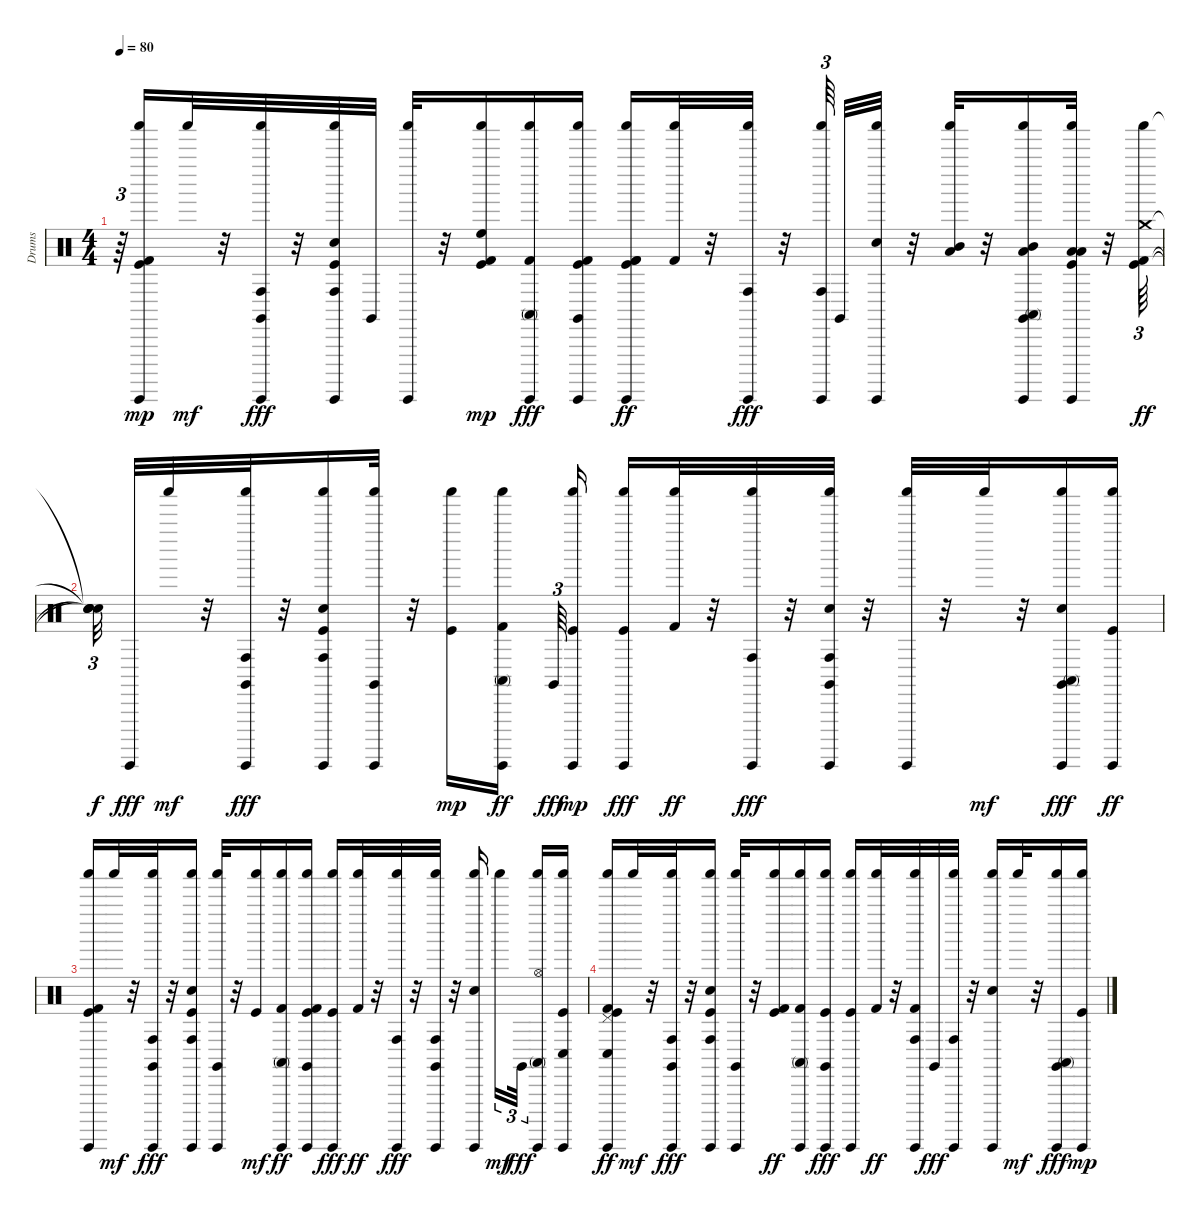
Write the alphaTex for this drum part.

\track ("Drums" "Drums") {instrument percussion}
\staff {score}
\articulation defaults
\ts (4 4)
\tempo 80
\clef neutral
\ks c
r.64{tu (3 2) dy f} ("Kick (hit) 2" "Guiro (hit)" "Shaker (hit)" "Kick (hit)").16{dy mp} "Shaker (hit)".32{dy mf} r.32 ("Claves (hit)" "Guiro (hit)" "Shaker (hit)" "Conga high (hit)").32{dy fff} r.32 ("Electric Snare (hit)" "Guiro (hit)" "Shaker (hit)" "Kick (hit)" "Conga high (hit)").32 "Claves (hit)".32 ("Guiro (hit)" "Shaker (hit)").32 r.32 ("Kick (hit) 2" "Shaker (hit)" "Kick (hit)" "High Floor Tom (hit)").16{dy mp} ("Kick (hit) 2" "Guiro (hit)" "Shaker (hit)" "Conga high (mute)").16{dy fff} ("Guiro (hit)" "Shaker (hit)" "Kick (hit)" "Kick (hit) 2" "Claves (hit)").16 ("Kick (hit) 2" "Guiro (hit)" "Shaker (hit)" "Kick (hit)" "Kick (hit) 2").16{dy ff} ("Shaker (hit)" "Kick (hit) 2").32 r.32 ("Guiro (hit)" "Shaker (hit)" "Conga high (hit)").32{dy fff} r.32 ("Guiro (hit)" "Shaker (hit)" "Conga high (hit)").64{tu (3 2)} "Claves (hit)".32 ("Electric Snare (hit)" "Guiro (hit)" "Shaker (hit)").32 r.32 ("Shaker (hit)" "Low Floor Tom (hit)" "Mid Tom (hit)").32 r.32 ("Guiro (hit)" "Shaker (hit)" "Conga high (mute)" "Mid Tom (hit)" "Low Floor Tom (hit)" "Claves (hit)").16 ("Guiro (hit)" "Shaker (hit)" "Kick (hit)" "Low Floor Tom (hit)" "Low Tom (hit)").32 r.32 ("Shaker (hit)" "Kick (hit)" "Crash medium (hit)" "Kick (hit) 2").64{tu (3 2) dy ff} |
("Snare (hit)"{t} "Snare (hit)"{t} "Snare (hit)"{t} "Snare (hit)"{t}).32{tu (3 2) dy f} "Guiro (hit)".32{dy fff} "Shaker (hit)".32{dy mf} r.32 ("Shaker (hit)" "Guiro (hit)" "Conga high (hit)" "Claves (hit)").32{dy fff} r.32 ("Electric Snare (hit)" "Shaker (hit)" "Kick (hit)" "Guiro (hit)" "Conga high (hit)").16 ("Claves (hit)" "Shaker (hit)" "Guiro (hit)").32 r.32 ("Shaker (hit)" "Kick (hit)").16{dy mp} ("Shaker (hit)" "Guiro (hit)" "Conga high (mute)" "Kick (hit) 2").16{dy ff} "Claves (hit)".64{tu (3 2) dy fff} ("Shaker (hit)" "Kick (hit)" "Guiro (hit)").16{dy mp} ("Shaker (hit)" "Kick (hit)" "Guiro (hit)").16{dy fff} ("Shaker (hit)" "Kick (hit) 2").32{dy ff} r.32 ("Shaker (hit)" "Guiro (hit)" "Conga high (hit)").32{dy fff} r.32 ("Shaker (hit)" "Guiro (hit)" "Conga high (hit)" "Electric Snare (hit)" "Claves (hit)").32 r.32 ("Shaker (hit)" "Guiro (hit)").32 r.32 "Shaker (hit)".32{dy mf} r.32 ("Claves (hit)" "Shaker (hit)" "Guiro (hit)" "Conga high (mute)" "Electric Snare (hit)").16{dy fff} ("Shaker (hit)" "Kick (hit)" "Guiro (hit)").16{dy ff} |
("Kick (hit)" "Guiro (hit)" "Shaker (hit)" "Kick (hit) 2").16 "Shaker (hit)".32{dy mf} r.32 ("Claves (hit)" "Guiro (hit)" "Shaker (hit)" "Conga high (hit)").32{dy fff} r.32 ("Kick (hit)" "Guiro (hit)" "Shaker (hit)" "Conga high (hit)" "Electric Snare (hit)").16 ("Claves (hit)" "Guiro (hit)" "Shaker (hit)").32 r.32 ("Kick (hit)" "Shaker (hit)").16{dy mf} ("Guiro (hit)" "Shaker (hit)" "Conga high (mute)" "Kick (hit) 2").16{dy ff} ("Claves (hit)" "Kick (hit)" "Guiro (hit)" "Shaker (hit)" "Kick (hit) 2").16 ("Kick (hit)" "Guiro (hit)" "Shaker (hit)").16{dy fff} ("Shaker (hit)" "Kick (hit) 2").32{dy ff} r.32 ("Guiro (hit)" "Shaker (hit)" "Conga high (hit)").32{dy fff} r.32 ("Claves (hit)" "Guiro (hit)" "Shaker (hit)" "Conga high (hit)").32 r.32 ("Guiro (hit)" "Shaker (hit)" "Electric Snare (hit)").16 "Shaker (hit)".16{tu (3 2) dy mf} "Claves (hit)".32{tu (3 2) dy fff} ("Guiro (hit)" "Shaker (hit)" "Hi-Hat (open)" "Conga high (mute)").16 ("Kick (hit)" "Guiro (hit)" "Shaker (hit)" "Conga low (hit)").16 |
("Kick (hit)" "Guiro (hit)" "Shaker (hit)" "Pedal Hi-Hat (hit)" "Conga low (hit)" "Kick (hit) 2").16{dy ff} "Shaker (hit)".32{dy mf} r.32 ("Guiro (hit)" "Shaker (hit)" "Conga high (hit)" "Claves (hit)").32{dy fff} r.32 ("Kick (hit)" "Guiro (hit)" "Shaker (hit)" "Conga high (hit)" "Electric Snare (hit)").16 ("Claves (hit)" "Guiro (hit)" "Shaker (hit)").32 r.32 ("Kick (hit)" "Shaker (hit)" "Kick (hit) 2").16{dy ff} ("Guiro (hit)" "Shaker (hit)" "Conga high (mute)" "Kick (hit) 2").16 ("Kick (hit)" "Guiro (hit)" "Shaker (hit)" "Claves (hit)").16{dy fff} ("Kick (hit)" "Guiro (hit)" "Shaker (hit)").16 ("Shaker (hit)" "Kick (hit) 2").32{dy ff} r.32 ("Guiro (hit)" "Shaker (hit)" "Conga high (hit)" "Kick (hit) 2").32 "Claves (hit)".32{dy fff} ("Guiro (hit)" "Shaker (hit)" "Conga high (hit)").32 r.32 ("Guiro (hit)" "Shaker (hit)" "Electric Snare (hit)").16 "Shaker (hit)".32{dy mf} r.32 ("Claves (hit)" "Guiro (hit)" "Shaker (hit)" "Conga high (mute)").16{dy fff} ("Kick (hit)" "Guiro (hit)" "Shaker (hit)").16{dy mp}
